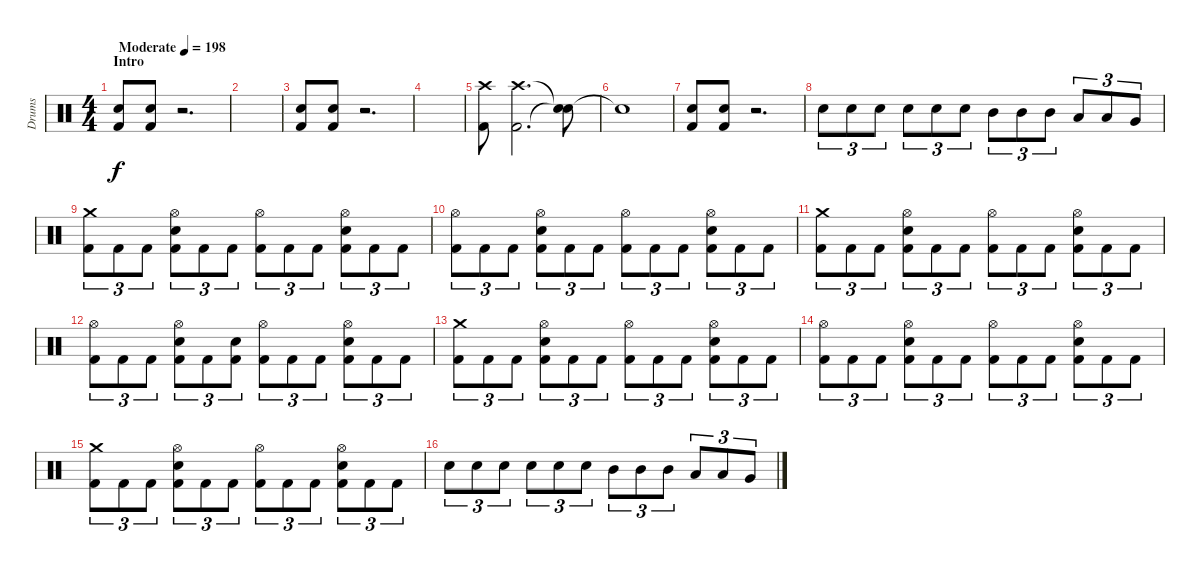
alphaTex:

\track ("Drums" "Drums") {instrument percussion}
\staff {score}
\articulation defaults
\ts (4 4)
\section ("" "Intro")
\tempo (198 "Moderate")
\clef neutral
\ks c
("Electric Snare (hit)" "Kick (hit) 2").8{dy f} ("Electric Snare (hit)" "Kick (hit) 2").8 r.2{d} |
|
("Electric Snare (hit)" "Kick (hit) 2").8 ("Electric Snare (hit)" "Kick (hit) 2").8 r.2{d} |
|
("Crash high (hit)" "Kick (hit) 2").8 ("Crash high (hit)" "Kick (hit) 2").2{d} ("Snare (hit)"{t} "Snare (hit)"{t}).8 |
"Snare (hit)"{t}.1 |
("Electric Snare (hit)" "Kick (hit) 2").8 ("Electric Snare (hit)" "Kick (hit) 2").8 r.2{d} |
"Electric Snare (hit)".8{tu (3 2)} "Electric Snare (hit)".8{tu (3 2)} "Electric Snare (hit)".8{tu (3 2)} "Electric Snare (hit)".8{tu (3 2)} "Electric Snare (hit)".8{tu (3 2)} "Electric Snare (hit)".8{tu (3 2)} "Mid Tom (hit)".8{tu (3 2)} "Mid Tom (hit)".8{tu (3 2)} "Mid Tom (hit)".8{tu (3 2)} "Low Tom (hit)".8{tu (3 2)} "Low Tom (hit)".8{tu (3 2)} "Very Low Tom (hit)".8{tu (3 2)} |
("Crash medium (hit)" "Kick (hit) 2").8{tu (3 2)} "Kick (hit) 2".8{tu (3 2)} "Kick (hit) 2".8{tu (3 2)} ("Hi-Hat (open)" "Electric Snare (hit)" "Kick (hit) 2").8{tu (3 2)} "Kick (hit) 2".8{tu (3 2)} "Kick (hit) 2".8{tu (3 2)} ("Hi-Hat (open)" "Kick (hit) 2").8{tu (3 2)} "Kick (hit) 2".8{tu (3 2)} "Kick (hit) 2".8{tu (3 2)} ("Hi-Hat (open)" "Electric Snare (hit)" "Kick (hit) 2").8{tu (3 2)} "Kick (hit) 2".8{tu (3 2)} "Kick (hit) 2".8{tu (3 2)} |
("Hi-Hat (open)" "Kick (hit) 2").8{tu (3 2)} "Kick (hit) 2".8{tu (3 2)} "Kick (hit) 2".8{tu (3 2)} ("Hi-Hat (open)" "Electric Snare (hit)" "Kick (hit) 2").8{tu (3 2)} "Kick (hit) 2".8{tu (3 2)} "Kick (hit) 2".8{tu (3 2)} ("Hi-Hat (open)" "Kick (hit) 2").8{tu (3 2)} "Kick (hit) 2".8{tu (3 2)} "Kick (hit) 2".8{tu (3 2)} ("Hi-Hat (open)" "Electric Snare (hit)" "Kick (hit) 2").8{tu (3 2)} "Kick (hit) 2".8{tu (3 2)} "Kick (hit) 2".8{tu (3 2)} |
("Crash medium (hit)" "Kick (hit) 2").8{tu (3 2)} "Kick (hit) 2".8{tu (3 2)} "Kick (hit) 2".8{tu (3 2)} ("Hi-Hat (open)" "Electric Snare (hit)" "Kick (hit) 2").8{tu (3 2)} "Kick (hit) 2".8{tu (3 2)} "Kick (hit) 2".8{tu (3 2)} ("Hi-Hat (open)" "Kick (hit) 2").8{tu (3 2)} "Kick (hit) 2".8{tu (3 2)} "Kick (hit) 2".8{tu (3 2)} ("Hi-Hat (open)" "Electric Snare (hit)" "Kick (hit) 2").8{tu (3 2)} "Kick (hit) 2".8{tu (3 2)} "Kick (hit) 2".8{tu (3 2)} |
("Hi-Hat (open)" "Kick (hit) 2").8{tu (3 2)} "Kick (hit) 2".8{tu (3 2)} "Kick (hit) 2".8{tu (3 2)} ("Hi-Hat (open)" "Electric Snare (hit)" "Kick (hit) 2").8{tu (3 2)} "Kick (hit) 2".8{tu (3 2)} ("Electric Snare (hit)" "Kick (hit) 2").8{tu (3 2)} ("Hi-Hat (open)" "Kick (hit) 2").8{tu (3 2)} "Kick (hit) 2".8{tu (3 2)} "Kick (hit) 2".8{tu (3 2)} ("Hi-Hat (open)" "Electric Snare (hit)" "Kick (hit) 2").8{tu (3 2)} "Kick (hit) 2".8{tu (3 2)} "Kick (hit) 2".8{tu (3 2)} |
("Crash medium (hit)" "Kick (hit) 2").8{tu (3 2)} "Kick (hit) 2".8{tu (3 2)} "Kick (hit) 2".8{tu (3 2)} ("Hi-Hat (open)" "Electric Snare (hit)" "Kick (hit) 2").8{tu (3 2)} "Kick (hit) 2".8{tu (3 2)} "Kick (hit) 2".8{tu (3 2)} ("Hi-Hat (open)" "Kick (hit) 2").8{tu (3 2)} "Kick (hit) 2".8{tu (3 2)} "Kick (hit) 2".8{tu (3 2)} ("Hi-Hat (open)" "Electric Snare (hit)" "Kick (hit) 2").8{tu (3 2)} "Kick (hit) 2".8{tu (3 2)} "Kick (hit) 2".8{tu (3 2)} |
("Hi-Hat (open)" "Kick (hit) 2").8{tu (3 2)} "Kick (hit) 2".8{tu (3 2)} "Kick (hit) 2".8{tu (3 2)} ("Hi-Hat (open)" "Electric Snare (hit)" "Kick (hit) 2").8{tu (3 2)} "Kick (hit) 2".8{tu (3 2)} "Kick (hit) 2".8{tu (3 2)} ("Hi-Hat (open)" "Kick (hit) 2").8{tu (3 2)} "Kick (hit) 2".8{tu (3 2)} "Kick (hit) 2".8{tu (3 2)} ("Hi-Hat (open)" "Electric Snare (hit)" "Kick (hit) 2").8{tu (3 2)} "Kick (hit) 2".8{tu (3 2)} "Kick (hit) 2".8{tu (3 2)} |
("Crash medium (hit)" "Kick (hit) 2").8{tu (3 2)} "Kick (hit) 2".8{tu (3 2)} "Kick (hit) 2".8{tu (3 2)} ("Hi-Hat (open)" "Electric Snare (hit)" "Kick (hit) 2").8{tu (3 2)} "Kick (hit) 2".8{tu (3 2)} "Kick (hit) 2".8{tu (3 2)} ("Hi-Hat (open)" "Kick (hit) 2").8{tu (3 2)} "Kick (hit) 2".8{tu (3 2)} "Kick (hit) 2".8{tu (3 2)} ("Hi-Hat (open)" "Electric Snare (hit)" "Kick (hit) 2").8{tu (3 2)} "Kick (hit) 2".8{tu (3 2)} "Kick (hit) 2".8{tu (3 2)} |
"Electric Snare (hit)".8{tu (3 2)} "Electric Snare (hit)".8{tu (3 2)} "Electric Snare (hit)".8{tu (3 2)} "Electric Snare (hit)".8{tu (3 2)} "Electric Snare (hit)".8{tu (3 2)} "Electric Snare (hit)".8{tu (3 2)} "Mid Tom (hit)".8{tu (3 2)} "Mid Tom (hit)".8{tu (3 2)} "Mid Tom (hit)".8{tu (3 2)} "Low Tom (hit)".8{tu (3 2)} "Low Tom (hit)".8{tu (3 2)} "Very Low Tom (hit)".8{tu (3 2)}
